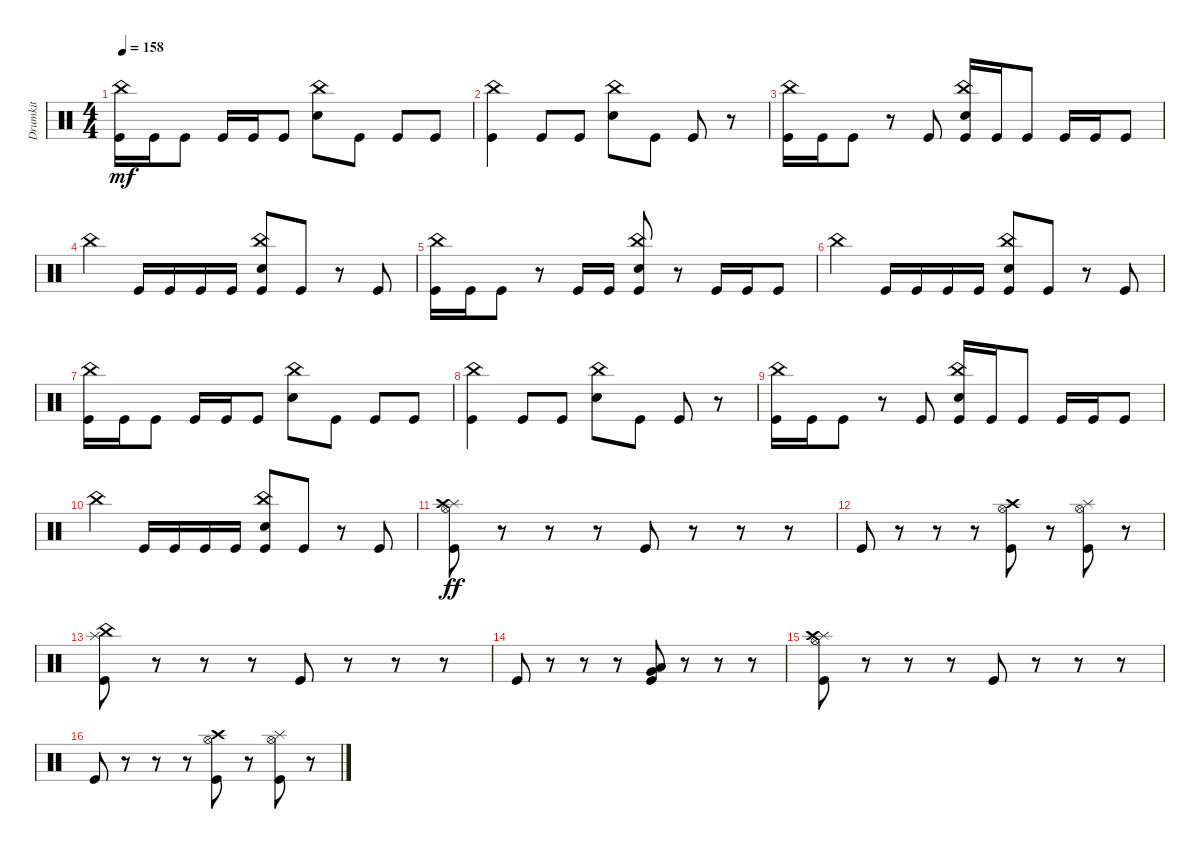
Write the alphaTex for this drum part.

\track ("Drumkit" "Drumkit") {instrument percussion}
\staff {score}
\articulation defaults
\ts (4 4)
\tempo 158
\clef neutral
\ks c
("Kick (hit)" "China (hit)").16{dy mf} "Kick (hit)".16 "Kick (hit)".8 "Kick (hit)".16 "Kick (hit)".16 "Kick (hit)".8 ("China (hit)" "Snare (hit) 2").8 "Kick (hit)".8 "Kick (hit)".8 "Kick (hit)".8 |
("Kick (hit)" "China (hit)").4 "Kick (hit)".8 "Kick (hit)".8 ("China (hit)" "Snare (hit) 2").8 "Kick (hit)".8 "Kick (hit)".8 r.8 |
("Kick (hit)" "China (hit)").16 "Kick (hit)".16 "Kick (hit)".8 r.8 "Kick (hit)".8 ("Kick (hit)" "China (hit)" "Snare (hit) 2").16 "Kick (hit)".16 "Kick (hit)".8 "Kick (hit)".16 "Kick (hit)".16 "Kick (hit)".8 |
"China (hit)".4 "Kick (hit)".16 "Kick (hit)".16 "Kick (hit)".16 "Kick (hit)".16 ("Kick (hit)" "China (hit)" "Snare (hit) 2").8 "Kick (hit)".8 r.8 "Kick (hit)".8 |
("Kick (hit)" "China (hit)").16 "Kick (hit)".16 "Kick (hit)".8 r.8 "Kick (hit)".16 "Kick (hit)".16 ("Kick (hit)" "China (hit)" "Snare (hit) 2").8 r.8 "Kick (hit)".16 "Kick (hit)".16 "Kick (hit)".8 |
"China (hit)".4 "Kick (hit)".16 "Kick (hit)".16 "Kick (hit)".16 "Kick (hit)".16 ("Kick (hit)" "China (hit)" "Snare (hit) 2").8 "Kick (hit)".8 r.8 "Kick (hit)".8 |
("Kick (hit)" "China (hit)").16 "Kick (hit)".16 "Kick (hit)".8 "Kick (hit)".16 "Kick (hit)".16 "Kick (hit)".8 ("China (hit)" "Snare (hit) 2").8 "Kick (hit)".8 "Kick (hit)".8 "Kick (hit)".8 |
("Kick (hit)" "China (hit)").4 "Kick (hit)".8 "Kick (hit)".8 ("China (hit)" "Snare (hit) 2").8 "Kick (hit)".8 "Kick (hit)".8 r.8 |
("Kick (hit)" "China (hit)").16 "Kick (hit)".16 "Kick (hit)".8 r.8 "Kick (hit)".8 ("Kick (hit)" "China (hit)" "Snare (hit) 2").16 "Kick (hit)".16 "Kick (hit)".8 "Kick (hit)".16 "Kick (hit)".16 "Kick (hit)".8 |
"China (hit)".4 "Kick (hit)".16 "Kick (hit)".16 "Kick (hit)".16 "Kick (hit)".16 ("Kick (hit)" "China (hit)" "Snare (hit) 2").8 "Kick (hit)".8 r.8 "Kick (hit)".8 |
("Splash (hit)" "Hi-Hat (open)" "Crash high (hit)" "Kick (hit)").8{dy ff} r.8 r.8 r.8 "Kick (hit)".8 r.8 r.8 r.8 |
"Kick (hit)".8 r.8 r.8 r.8 ("Kick (hit)" "Hi-Hat (open)" "Crash high (hit)").8 r.8 ("Kick (hit)" "Hi-Hat (open)" "Splash (hit)").8 r.8 |
("Splash (hit)" "China (hit)" "Kick (hit)").8 r.8 r.8 r.8 "Kick (hit)".8 r.8 r.8 r.8 |
"Kick (hit)".8 r.8 r.8 r.8 ("Low Floor Tom (hit)" "Very Low Tom (hit)" "Kick (hit)").8 r.8 r.8 r.8 |
("Splash (hit)" "Hi-Hat (open)" "Crash high (hit)" "Kick (hit)").8 r.8 r.8 r.8 "Kick (hit)".8 r.8 r.8 r.8 |
"Kick (hit)".8 r.8 r.8 r.8 ("Kick (hit)" "Hi-Hat (open)" "Crash high (hit)").8 r.8 ("Kick (hit)" "Hi-Hat (open)" "Splash (hit)").8 r.8
